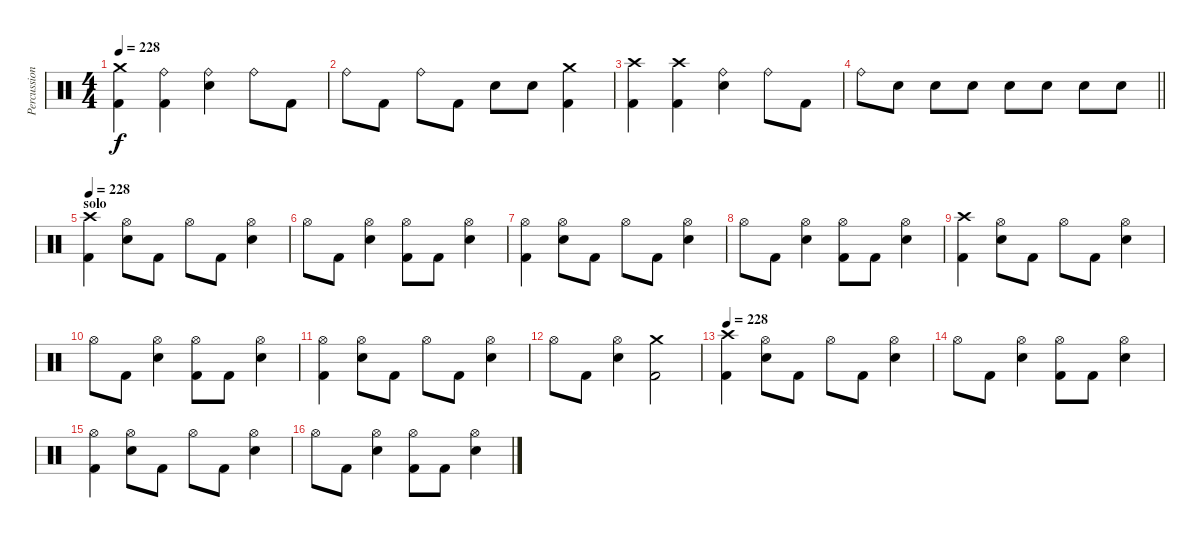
\track ("Percussion" "Percussion") {instrument percussion}
\staff {score}
\articulation defaults
\ts (4 4)
\tempo 228
\clef neutral
\ks c
("Crash medium (hit)" "Kick (hit) 2").4{dy f} ("Ride (bell)" "Kick (hit) 2").4 ("Ride (bell)" "Snare (hit) 2").4 "Ride (bell)".8 "Kick (hit) 2".8 |
"Ride (bell)".8 "Kick (hit) 2".8 "Ride (bell)".8 "Kick (hit) 2".8 "Snare (hit) 2".8 "Snare (hit) 2".8 ("Crash medium (hit)" "Kick (hit) 2").4 |
("Crash high (hit)" "Kick (hit) 2").4 ("Crash high (hit)" "Kick (hit) 2").4 ("Ride (bell)" "Snare (hit) 2").4 "Ride (bell)".8 "Kick (hit) 2".8 |
\barLineRight lightlight "Ride (bell)".8 "Snare (hit) 2".8 "Snare (hit) 2".8 "Snare (hit) 2".8 "Snare (hit) 2".8 "Snare (hit) 2".8 "Snare (hit) 2".8 "Snare (hit) 2".8
|
\section ("" "solo")
\tempo 228
("Crash high (hit)" "Kick (hit) 2").4 ("Hi-Hat (open)" "Snare (hit) 2").8 "Kick (hit) 2".8 "Hi-Hat (open)".8 "Kick (hit) 2".8 ("Hi-Hat (open)" "Snare (hit) 2").4 |
"Hi-Hat (open)".8 "Kick (hit) 2".8 ("Hi-Hat (open)" "Snare (hit) 2").4 ("Hi-Hat (open)" "Kick (hit) 2").8 "Kick (hit) 2".8 ("Hi-Hat (open)" "Snare (hit) 2").4 |
("Hi-Hat (open)" "Kick (hit) 2").4 ("Hi-Hat (open)" "Snare (hit) 2").8 "Kick (hit) 2".8 "Hi-Hat (open)".8 "Kick (hit) 2".8 ("Hi-Hat (open)" "Snare (hit) 2").4 |
"Hi-Hat (open)".8 "Kick (hit) 2".8 ("Hi-Hat (open)" "Snare (hit) 2").4 ("Hi-Hat (open)" "Kick (hit) 2").8 "Kick (hit) 2".8 ("Hi-Hat (open)" "Snare (hit) 2").4 |
("Crash high (hit)" "Kick (hit) 2").4 ("Hi-Hat (open)" "Snare (hit) 2").8 "Kick (hit) 2".8 "Hi-Hat (open)".8 "Kick (hit) 2".8 ("Hi-Hat (open)" "Snare (hit) 2").4 |
"Hi-Hat (open)".8 "Kick (hit) 2".8 ("Hi-Hat (open)" "Snare (hit) 2").4 ("Hi-Hat (open)" "Kick (hit) 2").8 "Kick (hit) 2".8 ("Hi-Hat (open)" "Snare (hit) 2").4 |
("Hi-Hat (open)" "Kick (hit) 2").4 ("Hi-Hat (open)" "Snare (hit) 2").8 "Kick (hit) 2".8 "Hi-Hat (open)".8 "Kick (hit) 2".8 ("Hi-Hat (open)" "Snare (hit) 2").4 |
"Hi-Hat (open)".8 "Kick (hit) 2".8 ("Hi-Hat (open)" "Snare (hit) 2").4 ("Crash medium (hit)" "Kick (hit) 2").2 |
\tempo 228
("Crash high (hit)" "Kick (hit) 2").4 ("Hi-Hat (open)" "Snare (hit) 2").8 "Kick (hit) 2".8 "Hi-Hat (open)".8 "Kick (hit) 2".8 ("Hi-Hat (open)" "Snare (hit) 2").4 |
"Hi-Hat (open)".8 "Kick (hit) 2".8 ("Hi-Hat (open)" "Snare (hit) 2").4 ("Hi-Hat (open)" "Kick (hit) 2").8 "Kick (hit) 2".8 ("Hi-Hat (open)" "Snare (hit) 2").4 |
("Hi-Hat (open)" "Kick (hit) 2").4 ("Hi-Hat (open)" "Snare (hit) 2").8 "Kick (hit) 2".8 "Hi-Hat (open)".8 "Kick (hit) 2".8 ("Hi-Hat (open)" "Snare (hit) 2").4 |
"Hi-Hat (open)".8 "Kick (hit) 2".8 ("Hi-Hat (open)" "Snare (hit) 2").4 ("Hi-Hat (open)" "Kick (hit) 2").8 "Kick (hit) 2".8 ("Hi-Hat (open)" "Snare (hit) 2").4
